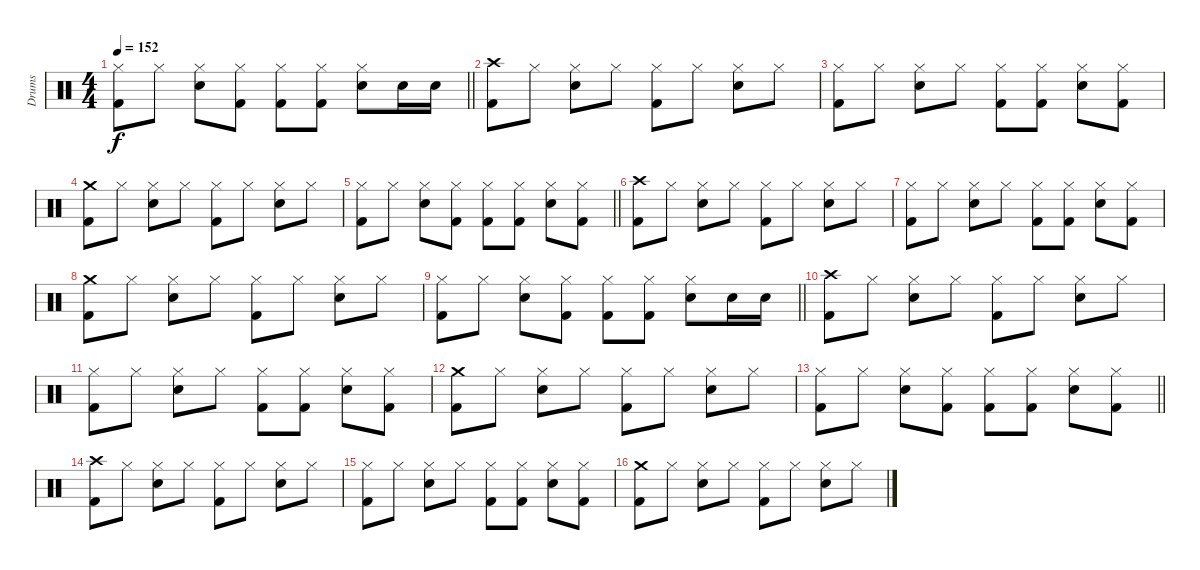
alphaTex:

\track ("Drums" "Drums") {instrument percussion}
\staff
\articulation defaults
\ts (4 4)
\tempo 152
\clef neutral
\barLineRight lightlight
\ks c
("Hi-Hat (closed)" "Kick (hit) 2").8{dy f} "Hi-Hat (closed)".8 ("Hi-Hat (closed)" "Electric Snare (hit)").8 ("Hi-Hat (closed)" "Kick (hit) 2").8 ("Hi-Hat (closed)" "Kick (hit) 2").8 ("Hi-Hat (closed)" "Kick (hit) 2").8 ("Hi-Hat (closed)" "Electric Snare (hit)").8 "Electric Snare (hit)".16 "Electric Snare (hit)".16 |
("Crash high (hit)" "Kick (hit) 2").8 "Hi-Hat (closed)".8 ("Hi-Hat (closed)" "Electric Snare (hit)").8 "Hi-Hat (closed)".8 ("Hi-Hat (closed)" "Kick (hit) 2").8 "Hi-Hat (closed)".8 ("Hi-Hat (closed)" "Electric Snare (hit)").8 "Hi-Hat (closed)".8 |
("Hi-Hat (closed)" "Kick (hit) 2").8 "Hi-Hat (closed)".8 ("Hi-Hat (closed)" "Electric Snare (hit)").8 "Hi-Hat (closed)".8 ("Hi-Hat (closed)" "Kick (hit) 2").8 ("Hi-Hat (closed)" "Kick (hit) 2").8 ("Hi-Hat (closed)" "Electric Snare (hit)").8 ("Hi-Hat (closed)" "Kick (hit) 2").8 |
("Crash medium (hit)" "Kick (hit) 2").8 "Hi-Hat (closed)".8 ("Hi-Hat (closed)" "Electric Snare (hit)").8 "Hi-Hat (closed)".8 ("Hi-Hat (closed)" "Kick (hit) 2").8 "Hi-Hat (closed)".8 ("Hi-Hat (closed)" "Electric Snare (hit)").8 "Hi-Hat (closed)".8 |
\barLineRight lightlight
("Hi-Hat (closed)" "Kick (hit) 2").8 "Hi-Hat (closed)".8 ("Hi-Hat (closed)" "Electric Snare (hit)").8 ("Hi-Hat (closed)" "Kick (hit) 2").8 ("Hi-Hat (closed)" "Kick (hit) 2").8 ("Hi-Hat (closed)" "Kick (hit) 2").8 ("Hi-Hat (closed)" "Electric Snare (hit)").8 ("Hi-Hat (closed)" "Kick (hit) 2").8 |
("Crash high (hit)" "Kick (hit) 2").8 "Hi-Hat (closed)".8 ("Hi-Hat (closed)" "Electric Snare (hit)").8 "Hi-Hat (closed)".8 ("Hi-Hat (closed)" "Kick (hit) 2").8 "Hi-Hat (closed)".8 ("Hi-Hat (closed)" "Electric Snare (hit)").8 "Hi-Hat (closed)".8 |
("Hi-Hat (closed)" "Kick (hit) 2").8 "Hi-Hat (closed)".8 ("Hi-Hat (closed)" "Electric Snare (hit)").8 "Hi-Hat (closed)".8 ("Hi-Hat (closed)" "Kick (hit) 2").8 ("Hi-Hat (closed)" "Kick (hit) 2").8 ("Hi-Hat (closed)" "Electric Snare (hit)").8 ("Hi-Hat (closed)" "Kick (hit) 2").8 |
("Crash medium (hit)" "Kick (hit) 2").8 "Hi-Hat (closed)".8 ("Hi-Hat (closed)" "Electric Snare (hit)").8 "Hi-Hat (closed)".8 ("Hi-Hat (closed)" "Kick (hit) 2").8 "Hi-Hat (closed)".8 ("Hi-Hat (closed)" "Electric Snare (hit)").8 "Hi-Hat (closed)".8 |
\barLineRight lightlight
("Hi-Hat (closed)" "Kick (hit) 2").8 "Hi-Hat (closed)".8 ("Hi-Hat (closed)" "Electric Snare (hit)").8 ("Hi-Hat (closed)" "Kick (hit) 2").8 ("Hi-Hat (closed)" "Kick (hit) 2").8 ("Hi-Hat (closed)" "Kick (hit) 2").8 ("Hi-Hat (closed)" "Electric Snare (hit)").8 "Electric Snare (hit)".16 "Electric Snare (hit)".16 |
("Crash high (hit)" "Kick (hit) 2").8 "Hi-Hat (closed)".8 ("Hi-Hat (closed)" "Electric Snare (hit)").8 "Hi-Hat (closed)".8 ("Hi-Hat (closed)" "Kick (hit) 2").8 "Hi-Hat (closed)".8 ("Hi-Hat (closed)" "Electric Snare (hit)").8 "Hi-Hat (closed)".8 |
("Hi-Hat (closed)" "Kick (hit) 2").8 "Hi-Hat (closed)".8 ("Hi-Hat (closed)" "Electric Snare (hit)").8 "Hi-Hat (closed)".8 ("Hi-Hat (closed)" "Kick (hit) 2").8 ("Hi-Hat (closed)" "Kick (hit) 2").8 ("Hi-Hat (closed)" "Electric Snare (hit)").8 ("Hi-Hat (closed)" "Kick (hit) 2").8 |
("Crash medium (hit)" "Kick (hit) 2").8 "Hi-Hat (closed)".8 ("Hi-Hat (closed)" "Electric Snare (hit)").8 "Hi-Hat (closed)".8 ("Hi-Hat (closed)" "Kick (hit) 2").8 "Hi-Hat (closed)".8 ("Hi-Hat (closed)" "Electric Snare (hit)").8 "Hi-Hat (closed)".8 |
\barLineRight lightlight
("Hi-Hat (closed)" "Kick (hit) 2").8 "Hi-Hat (closed)".8 ("Hi-Hat (closed)" "Electric Snare (hit)").8 ("Hi-Hat (closed)" "Kick (hit) 2").8 ("Hi-Hat (closed)" "Kick (hit) 2").8 ("Hi-Hat (closed)" "Kick (hit) 2").8 ("Hi-Hat (closed)" "Electric Snare (hit)").8 ("Hi-Hat (closed)" "Kick (hit) 2").8 |
("Crash high (hit)" "Kick (hit) 2").8 "Hi-Hat (closed)".8 ("Hi-Hat (closed)" "Electric Snare (hit)").8 "Hi-Hat (closed)".8 ("Hi-Hat (closed)" "Kick (hit) 2").8 "Hi-Hat (closed)".8 ("Hi-Hat (closed)" "Electric Snare (hit)").8 "Hi-Hat (closed)".8 |
("Hi-Hat (closed)" "Kick (hit) 2").8 "Hi-Hat (closed)".8 ("Hi-Hat (closed)" "Electric Snare (hit)").8 "Hi-Hat (closed)".8 ("Hi-Hat (closed)" "Kick (hit) 2").8 ("Hi-Hat (closed)" "Kick (hit) 2").8 ("Hi-Hat (closed)" "Electric Snare (hit)").8 ("Hi-Hat (closed)" "Kick (hit) 2").8 |
("Crash medium (hit)" "Kick (hit) 2").8 "Hi-Hat (closed)".8 ("Hi-Hat (closed)" "Electric Snare (hit)").8 "Hi-Hat (closed)".8 ("Hi-Hat (closed)" "Kick (hit) 2").8 "Hi-Hat (closed)".8 ("Hi-Hat (closed)" "Electric Snare (hit)").8 "Hi-Hat (closed)".8
